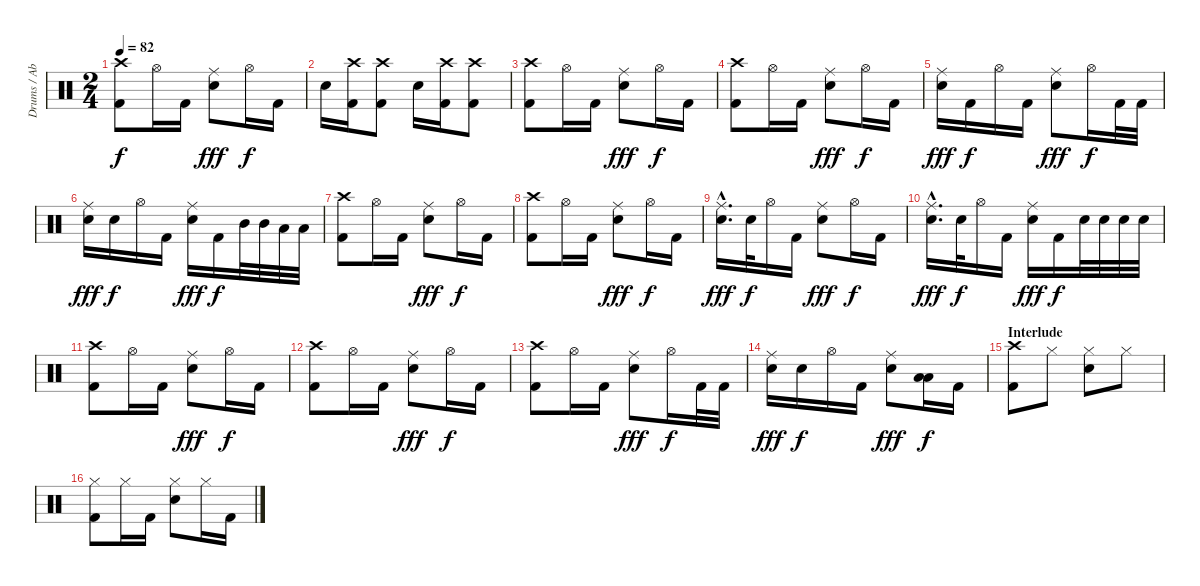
\track ("Drums / Abe Cunningham" "Drums / Ab") {instrument percussion}
\staff {score}
\articulation defaults
\ts (2 4)
\tempo 82
\clef neutral
\ks c
("Crash high (hit)" "Kick (hit) 2").8{dy f} "Hi-Hat (open)".16 "Kick (hit) 2".16 ("Ride (middle)" "Electric Snare (hit)").8{dy fff} "Hi-Hat (open)".16{dy f} "Kick (hit) 2".16 |
"Electric Snare (hit)".16 ("Crash high (hit)" "Kick (hit) 2").16 ("Crash high (hit)" "Kick (hit) 2").8 "Electric Snare (hit)".16 ("Crash high (hit)" "Kick (hit) 2").16 ("Crash high (hit)" "Kick (hit) 2").8 |
("Crash high (hit)" "Kick (hit) 2").8 "Hi-Hat (open)".16 "Kick (hit) 2".16 ("Ride (middle)" "Electric Snare (hit)").8{dy fff} "Hi-Hat (open)".16{dy f} "Kick (hit) 2".16 |
("Crash high (hit)" "Kick (hit) 2").8 "Hi-Hat (open)".16 "Kick (hit) 2".16 ("Ride (middle)" "Electric Snare (hit)").8{dy fff} "Hi-Hat (open)".16{dy f} "Kick (hit) 2".16 |
("Ride (middle)" "Electric Snare (hit)").16{dy fff} "Kick (hit) 2".16{dy f} "Hi-Hat (open)".16 "Kick (hit) 2".16 ("Ride (middle)" "Electric Snare (hit)").8{dy fff} "Hi-Hat (open)".16{dy f} "Kick (hit) 2".32 "Kick (hit) 2".32 |
("Ride (middle)" "Electric Snare (hit)").16{dy fff} "Electric Snare (hit)".16{dy f} "Hi-Hat (open)".16 "Kick (hit) 2".16 ("Ride (middle)" "Electric Snare (hit)").16{dy fff} "Kick (hit) 2".16{dy f} "Mid Tom (hit)".32 "Mid Tom (hit)".32 "Low Tom (hit)".32 "Low Tom (hit)".32 |
("Crash high (hit)" "Kick (hit) 2").8 "Hi-Hat (open)".16 "Kick (hit) 2".16 ("Ride (middle)" "Electric Snare (hit)").8{dy fff} "Hi-Hat (open)".16{dy f} "Kick (hit) 2".16 |
("Crash high (hit)" "Kick (hit) 2").8 "Hi-Hat (open)".16 "Kick (hit) 2".16 ("Ride (middle)" "Electric Snare (hit)").8{dy fff} "Hi-Hat (open)".16{dy f} "Kick (hit) 2".16 |
("Ride (middle)"{hac} "Electric Snare (hit)"{hac}).16{d dy fff} "Electric Snare (hit)".32{dy f} "Hi-Hat (open)".16 "Kick (hit) 2".16 ("Ride (middle)" "Electric Snare (hit)").8{dy fff} "Hi-Hat (open)".16{dy f} "Kick (hit) 2".16 |
("Ride (middle)"{hac} "Electric Snare (hit)"{hac}).16{d dy fff} "Electric Snare (hit)".32{dy f} "Hi-Hat (open)".16 "Kick (hit) 2".16 ("Ride (middle)" "Electric Snare (hit)").16{dy fff} "Kick (hit) 2".16{dy f} "Electric Snare (hit)".32 "Electric Snare (hit)".32 "Electric Snare (hit)".32 "Electric Snare (hit)".32 |
("Crash high (hit)" "Kick (hit) 2").8 "Hi-Hat (open)".16 "Kick (hit) 2".16 ("Ride (middle)" "Electric Snare (hit)").8{dy fff} "Hi-Hat (open)".16{dy f} "Kick (hit) 2".16 |
("Crash high (hit)" "Kick (hit) 2").8 "Hi-Hat (open)".16 "Kick (hit) 2".16 ("Ride (middle)" "Electric Snare (hit)").8{dy fff} "Hi-Hat (open)".16{dy f} "Kick (hit) 2".16 |
("Crash high (hit)" "Kick (hit) 2").8 "Hi-Hat (open)".16 "Kick (hit) 2".16 ("Ride (middle)" "Electric Snare (hit)").8{dy fff} "Hi-Hat (open)".16{dy f} "Kick (hit) 2".32 "Kick (hit) 2".32 |
("Ride (middle)" "Electric Snare (hit)").16{dy fff} "Electric Snare (hit)".16{dy f} "Hi-Hat (open)".16 "Kick (hit) 2".16 ("Ride (middle)" "Electric Snare (hit)").8{dy fff} ("Low Tom (hit)" "Low Floor Tom (hit)").16{dy f} "Kick (hit) 2".16 |
\section ("" "Interlude")
("Crash high (hit)" "Kick (hit) 2").8 "Hi-Hat (closed)".8 ("Hi-Hat (closed)" "Electric Snare (hit)").8 "Hi-Hat (closed)".8 |
("Hi-Hat (closed)" "Kick (hit) 2").8 "Hi-Hat (closed)".16 "Kick (hit) 2".16 ("Hi-Hat (closed)" "Electric Snare (hit)").8 "Hi-Hat (closed)".16 "Kick (hit) 2".16
